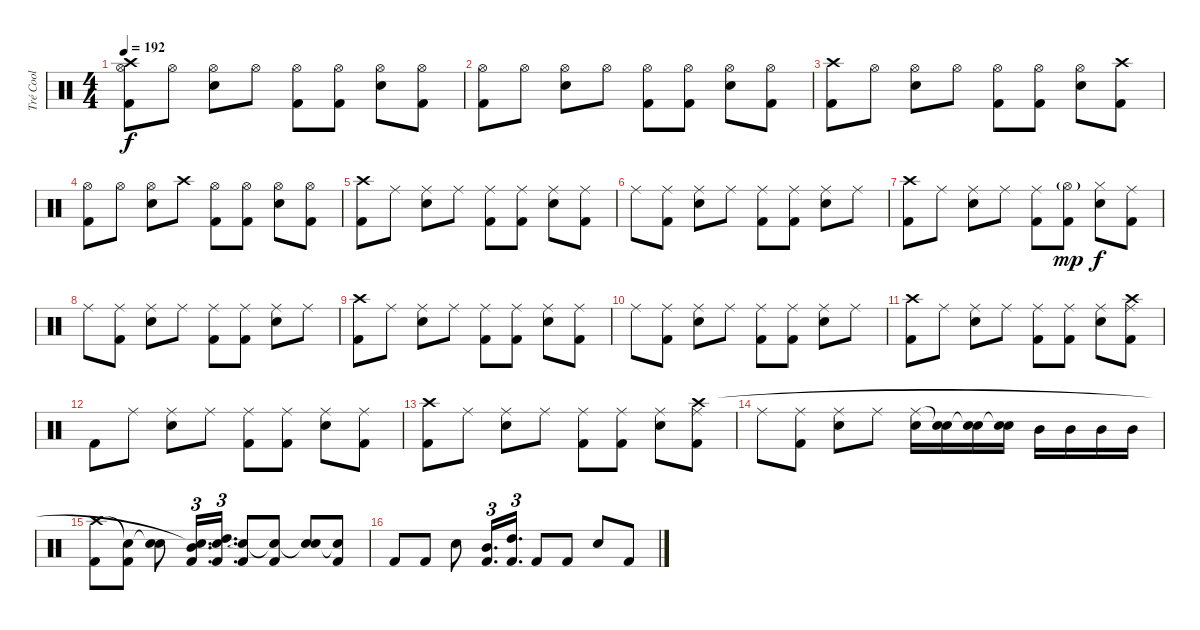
\track ("Tré Cool" "Tré Cool") {solo instrument percussion}
\staff {score}
\articulation defaults
\ts (4 4)
\tempo 192
\clef neutral
\ks c
("Hi-Hat (open)" "Kick (hit) 2" "Crash high (hit)").8{dy f} "Hi-Hat (open)".8 ("Hi-Hat (open)" "Electric Snare (hit)").8 "Hi-Hat (open)".8 ("Hi-Hat (open)" "Kick (hit) 2").8 ("Hi-Hat (open)" "Kick (hit) 2").8 ("Hi-Hat (open)" "Electric Snare (hit)").8 ("Hi-Hat (open)" "Kick (hit) 2").8 |
("Hi-Hat (open)" "Kick (hit) 2").8 "Hi-Hat (open)".8 ("Hi-Hat (open)" "Electric Snare (hit)").8 "Hi-Hat (open)".8 ("Hi-Hat (open)" "Kick (hit) 2").8 ("Hi-Hat (open)" "Kick (hit) 2").8 ("Hi-Hat (open)" "Electric Snare (hit)").8 ("Hi-Hat (open)" "Kick (hit) 2").8 |
("Kick (hit) 2" "Crash high (hit)").8 "Hi-Hat (open)".8 ("Hi-Hat (open)" "Electric Snare (hit)").8 "Hi-Hat (open)".8 ("Hi-Hat (open)" "Kick (hit) 2").8 ("Hi-Hat (open)" "Kick (hit) 2").8 ("Hi-Hat (open)" "Electric Snare (hit)").8 ("Kick (hit) 2" "Crash high (hit)").8 |
("Hi-Hat (open)" "Kick (hit) 2").8 "Hi-Hat (open)".8 ("Hi-Hat (open)" "Electric Snare (hit)").8 "Crash high (hit)".8 ("Hi-Hat (open)" "Kick (hit) 2").8 ("Hi-Hat (open)" "Kick (hit) 2").8 ("Hi-Hat (open)" "Electric Snare (hit)").8 ("Hi-Hat (open)" "Kick (hit) 2").8 |
("Kick (hit) 2" "Crash high (hit)").8 "Ride (middle)".8 ("Ride (middle)" "Electric Snare (hit)").8 "Ride (middle)".8 ("Ride (middle)" "Kick (hit) 2").8 ("Ride (middle)" "Kick (hit) 2").8 ("Ride (middle)" "Electric Snare (hit)").8 ("Ride (middle)" "Kick (hit) 2").8 |
"Ride (middle)".8 ("Ride (middle)" "Kick (hit) 2").8 ("Ride (middle)" "Electric Snare (hit)").8 "Ride (middle)".8 ("Ride (middle)" "Kick (hit) 2").8 ("Ride (middle)" "Kick (hit) 2").8 ("Ride (middle)" "Electric Snare (hit)").8 "Ride (middle)".8 |
("Kick (hit) 2" "Crash high (hit)").8 "Ride (middle)".8 ("Ride (middle)" "Electric Snare (hit)").8 "Ride (middle)".8 ("Ride (middle)" "Kick (hit) 2").8 ("Hi-Hat (open)"{g} "Kick (hit) 2").8{dy mp} ("Hi-Hat (closed)" "Electric Snare (hit)").8{dy f} ("Ride (middle)" "Kick (hit) 2").8 |
"Ride (middle)".8 ("Ride (middle)" "Kick (hit) 2").8 ("Ride (middle)" "Electric Snare (hit)").8 "Ride (middle)".8 ("Ride (middle)" "Kick (hit) 2").8 ("Ride (middle)" "Kick (hit) 2").8 ("Ride (middle)" "Electric Snare (hit)").8 "Ride (middle)".8 |
("Kick (hit) 2" "Crash high (hit)").8 "Ride (middle)".8 ("Ride (middle)" "Electric Snare (hit)").8 "Ride (middle)".8 ("Ride (middle)" "Kick (hit) 2").8 ("Ride (middle)" "Kick (hit) 2").8 ("Ride (middle)" "Electric Snare (hit)").8 ("Ride (middle)" "Kick (hit) 2").8 |
"Ride (middle)".8 ("Ride (middle)" "Kick (hit) 2").8 ("Ride (middle)" "Electric Snare (hit)").8 "Ride (middle)".8 ("Ride (middle)" "Kick (hit) 2").8 ("Ride (middle)" "Kick (hit) 2").8 ("Ride (middle)" "Electric Snare (hit)").8 "Ride (middle)".8 |
("Kick (hit) 2" "Crash high (hit)").8 "Ride (middle)".8 ("Ride (middle)" "Electric Snare (hit)").8 "Ride (middle)".8 ("Ride (middle)" "Kick (hit) 2").8 ("Ride (middle)" "Kick (hit) 2").8 ("Ride (middle)" "Electric Snare (hit)").8 ("Ride (middle)" "Kick (hit) 2" "Crash high (hit)").8 |
"Kick (hit) 2".8 "Ride (middle)".8 ("Ride (middle)" "Electric Snare (hit)").8 "Ride (middle)".8 ("Ride (middle)" "Kick (hit) 2").8 ("Ride (middle)" "Kick (hit) 2").8 ("Ride (middle)" "Electric Snare (hit)").8 ("Ride (middle)" "Kick (hit) 2").8 |
("Kick (hit) 2" "Crash high (hit)").8 "Ride (middle)".8 ("Ride (middle)" "Electric Snare (hit)").8 "Ride (middle)".8 ("Ride (middle)" "Kick (hit) 2").8 ("Ride (middle)" "Kick (hit) 2").8 ("Ride (middle)" "Electric Snare (hit)").8 ("Ride (middle)" "Kick (hit) 2" "Crash high (hit)").8 |
"Ride (middle)".8 ("Ride (middle)" "Kick (hit) 2").8 ("Ride (middle)" "Electric Snare (hit)").8 "Ride (middle)".8 ("Ride (middle)" "Electric Snare (hit)").16 ("Snare (hit)"{t} "Electric Snare (hit)").16 ("Snare (hit)"{t} "Electric Snare (hit)").16 ("Snare (hit)"{t} "Electric Snare (hit)").16 "Mid Tom (hit)".16 "Mid Tom (hit)".16 "Mid Tom (hit)".16 "Mid Tom (hit)".16 |
("Kick (hit) 2" "Crash high (hit)").8 ("Kick (hit) 2" "Snare (hit)"{t}).8 ("Electric Snare (hit)" "Snare (hit)"{t}).8 ("Kick (hit) 2" "Mid Tom (hit)" "Snare (hit)"{t}).16{d tu (3 2)} ("Kick (hit) 2" "High Tom (hit)" "Snare (hit)"{t}).16{d tu (3 2)} ("Kick (hit) 2" "Snare (hit)"{t}).8 ("Kick (hit) 2" "Snare (hit)"{t}).8 ("Electric Snare (hit)" "Snare (hit)"{t}).8 ("Kick (hit) 2" "Snare (hit)"{t}).8 |
"Kick (hit) 2".8 "Kick (hit) 2".8 "Electric Snare (hit)".8 ("Kick (hit) 2" "Mid Tom (hit)").16{d tu (3 2)} ("Kick (hit) 2" "High Tom (hit)").16{d tu (3 2)} "Kick (hit) 2".8 "Kick (hit) 2".8 "Electric Snare (hit)".8 "Kick (hit) 2".8
